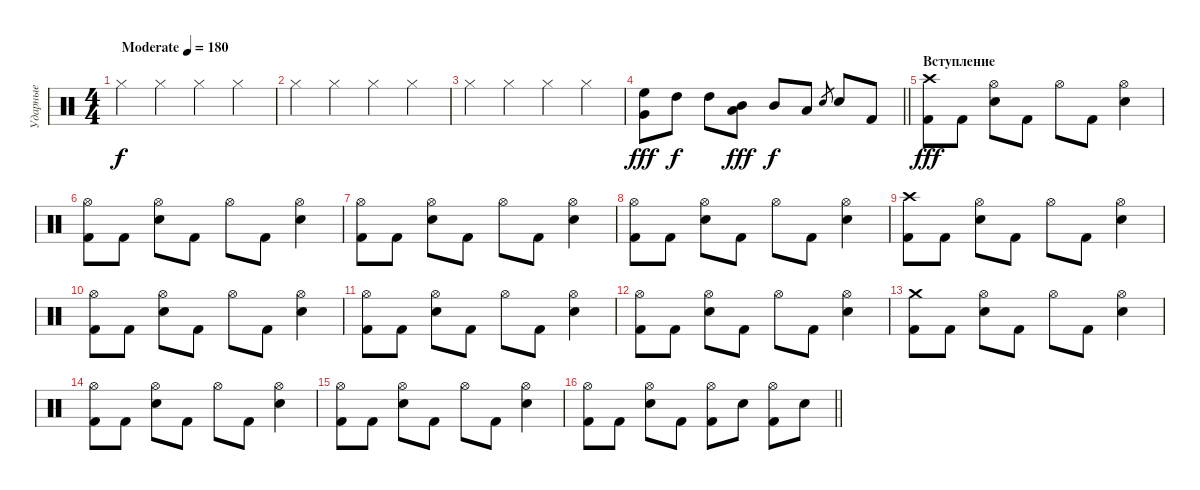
\track ("Ударные" "Ударные") {instrument percussion}
\staff {score}
\articulation defaults
\ts (4 4)
\tempo (180 "Moderate")
\clef neutral
\ks c "Hi-Hat (closed)".4{dy f} "Hi-Hat (closed)".4 "Hi-Hat (closed)".4 "Hi-Hat (closed)".4
|
"Hi-Hat (closed)".4 "Hi-Hat (closed)".4 "Hi-Hat (closed)".4 "Hi-Hat (closed)".4 |
"Hi-Hat (closed)".4 "Hi-Hat (closed)".4 "Hi-Hat (closed)".4 "Hi-Hat (closed)".4 |
\barLineRight lightlight
("High Floor Tom (hit)" "Very Low Tom (hit)").8{dy fff} "High Tom (hit)".8{dy f} "High Tom (hit)".8 ("Mid Tom (hit)" "Low Floor Tom (hit)").8{dy fff} "Mid Tom (hit)".8{dy f} "Low Tom (hit)".8 "Snare (hit) 2".8{gr} "Snare (hit) 2".8 "Kick (hit) 2".8 |
\section ("" "Вступление")
("Crash high (hit)" "Kick (hit) 2").8{dy fff} "Kick (hit) 2".8 ("Hi-Hat (open)" "Snare (hit) 2").8 "Kick (hit) 2".8 "Hi-Hat (open)".8 "Kick (hit) 2".8 ("Hi-Hat (open)" "Snare (hit) 2").4 |
("Hi-Hat (open)" "Kick (hit) 2").8 "Kick (hit) 2".8 ("Hi-Hat (open)" "Snare (hit) 2").8 "Kick (hit) 2".8 "Hi-Hat (open)".8 "Kick (hit) 2".8 ("Hi-Hat (open)" "Snare (hit) 2").4 |
("Hi-Hat (open)" "Kick (hit) 2").8 "Kick (hit) 2".8 ("Hi-Hat (open)" "Snare (hit) 2").8 "Kick (hit) 2".8 "Hi-Hat (open)".8 "Kick (hit) 2".8 ("Hi-Hat (open)" "Snare (hit) 2").4 |
("Hi-Hat (open)" "Kick (hit) 2").8 "Kick (hit) 2".8 ("Hi-Hat (open)" "Snare (hit) 2").8 "Kick (hit) 2".8 "Hi-Hat (open)".8 "Kick (hit) 2".8 ("Hi-Hat (open)" "Snare (hit) 2").4 |
("Crash high (hit)" "Kick (hit) 2").8 "Kick (hit) 2".8 ("Hi-Hat (open)" "Snare (hit) 2").8 "Kick (hit) 2".8 "Hi-Hat (open)".8 "Kick (hit) 2".8 ("Hi-Hat (open)" "Snare (hit) 2").4 |
("Hi-Hat (open)" "Kick (hit) 2").8 "Kick (hit) 2".8 ("Hi-Hat (open)" "Snare (hit) 2").8 "Kick (hit) 2".8 "Hi-Hat (open)".8 "Kick (hit) 2".8 ("Hi-Hat (open)" "Snare (hit) 2").4 |
("Hi-Hat (open)" "Kick (hit) 2").8 "Kick (hit) 2".8 ("Hi-Hat (open)" "Snare (hit) 2").8 "Kick (hit) 2".8 "Hi-Hat (open)".8 "Kick (hit) 2".8 ("Hi-Hat (open)" "Snare (hit) 2").4 |
("Hi-Hat (open)" "Kick (hit) 2").8 "Kick (hit) 2".8 ("Hi-Hat (open)" "Snare (hit) 2").8 "Kick (hit) 2".8 "Hi-Hat (open)".8 "Kick (hit) 2".8 ("Hi-Hat (open)" "Snare (hit) 2").4 |
("Crash medium (hit)" "Kick (hit) 2").8 "Kick (hit) 2".8 ("Hi-Hat (open)" "Snare (hit) 2").8 "Kick (hit) 2".8 "Hi-Hat (open)".8 "Kick (hit) 2".8 ("Hi-Hat (open)" "Snare (hit) 2").4 |
("Hi-Hat (open)" "Kick (hit) 2").8 "Kick (hit) 2".8 ("Hi-Hat (open)" "Snare (hit) 2").8 "Kick (hit) 2".8 "Hi-Hat (open)".8 "Kick (hit) 2".8 ("Hi-Hat (open)" "Snare (hit) 2").4 |
("Hi-Hat (open)" "Kick (hit) 2").8 "Kick (hit) 2".8 ("Hi-Hat (open)" "Snare (hit) 2").8 "Kick (hit) 2".8 "Hi-Hat (open)".8 "Kick (hit) 2".8 ("Hi-Hat (open)" "Snare (hit) 2").4 |
\barLineRight lightlight
("Hi-Hat (open)" "Kick (hit) 2").8 "Kick (hit) 2".8 ("Hi-Hat (open)" "Snare (hit) 2").8 "Kick (hit) 2".8 ("Hi-Hat (open)" "Kick (hit) 2").8 "Snare (hit) 2".8 ("Hi-Hat (open)" "Kick (hit) 2").8 "Snare (hit) 2".8
